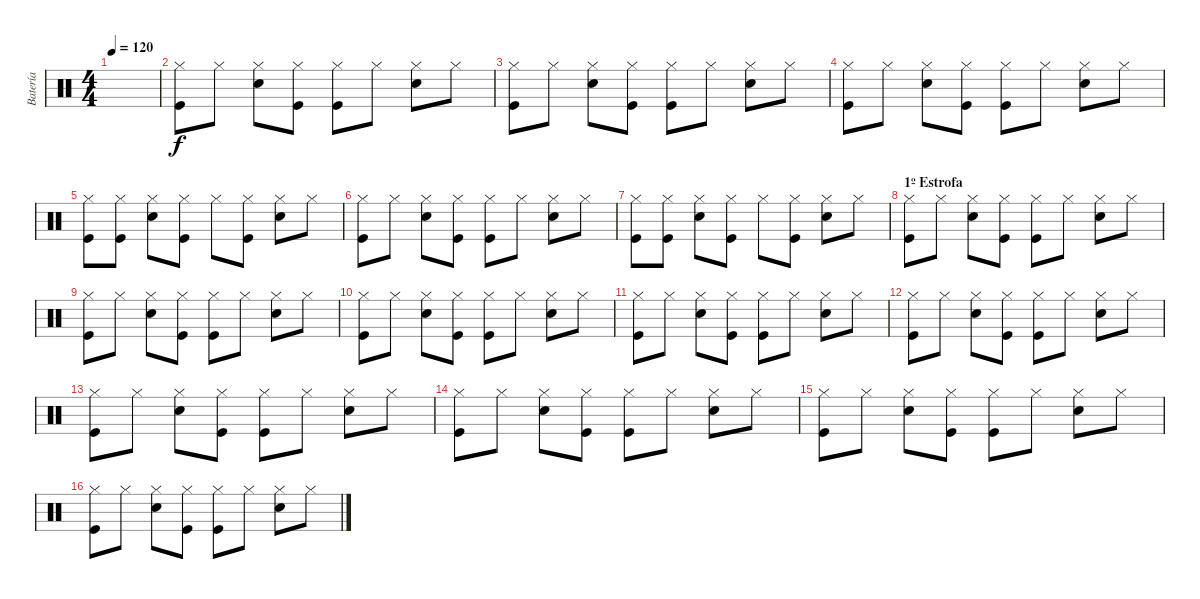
\track ("Batería" "Batería") {instrument percussion}
\staff {score}
\articulation defaults
\ts (4 4)
\tempo 120
\clef neutral
\ks c
|
("Hi-Hat (closed)" "Kick (hit)").8 "Hi-Hat (closed)".8 ("Hi-Hat (closed)" "Electric Snare (hit)").8 ("Hi-Hat (closed)" "Kick (hit)").8 ("Hi-Hat (closed)" "Kick (hit)").8 "Hi-Hat (closed)".8 ("Hi-Hat (closed)" "Electric Snare (hit)").8 "Hi-Hat (closed)".8 |
("Hi-Hat (closed)" "Kick (hit)").8 "Hi-Hat (closed)".8 ("Hi-Hat (closed)" "Electric Snare (hit)").8 ("Hi-Hat (closed)" "Kick (hit)").8 ("Hi-Hat (closed)" "Kick (hit)").8 "Hi-Hat (closed)".8 ("Hi-Hat (closed)" "Electric Snare (hit)").8 "Hi-Hat (closed)".8 |
("Hi-Hat (closed)" "Kick (hit)").8 "Hi-Hat (closed)".8 ("Hi-Hat (closed)" "Electric Snare (hit)").8 ("Hi-Hat (closed)" "Kick (hit)").8 ("Hi-Hat (closed)" "Kick (hit)").8 "Hi-Hat (closed)".8 ("Hi-Hat (closed)" "Electric Snare (hit)").8 "Hi-Hat (closed)".8 |
("Hi-Hat (closed)" "Kick (hit)").8 ("Hi-Hat (closed)" "Kick (hit)").8 ("Hi-Hat (closed)" "Electric Snare (hit)").8 ("Hi-Hat (closed)" "Kick (hit)").8 "Hi-Hat (closed)".8 ("Hi-Hat (closed)" "Kick (hit)").8 ("Hi-Hat (closed)" "Electric Snare (hit)").8 "Hi-Hat (closed)".8 |
("Hi-Hat (closed)" "Kick (hit)").8 "Hi-Hat (closed)".8 ("Hi-Hat (closed)" "Electric Snare (hit)").8 ("Hi-Hat (closed)" "Kick (hit)").8 ("Hi-Hat (closed)" "Kick (hit)").8 "Hi-Hat (closed)".8 ("Hi-Hat (closed)" "Electric Snare (hit)").8 "Hi-Hat (closed)".8 |
("Hi-Hat (closed)" "Kick (hit)").8 ("Hi-Hat (closed)" "Kick (hit)").8 ("Hi-Hat (closed)" "Electric Snare (hit)").8 ("Hi-Hat (closed)" "Kick (hit)").8 "Hi-Hat (closed)".8 ("Hi-Hat (closed)" "Kick (hit)").8 ("Hi-Hat (closed)" "Electric Snare (hit)").8 "Hi-Hat (closed)".8 |
\section ("" "1º Estrofa")
("Hi-Hat (closed)" "Kick (hit)").8 "Hi-Hat (closed)".8 ("Hi-Hat (closed)" "Electric Snare (hit)").8 ("Hi-Hat (closed)" "Kick (hit)").8 ("Hi-Hat (closed)" "Kick (hit)").8 "Hi-Hat (closed)".8 ("Hi-Hat (closed)" "Electric Snare (hit)").8 "Hi-Hat (closed)".8 |
("Hi-Hat (closed)" "Kick (hit)").8 "Hi-Hat (closed)".8 ("Hi-Hat (closed)" "Electric Snare (hit)").8 ("Hi-Hat (closed)" "Kick (hit)").8 ("Hi-Hat (closed)" "Kick (hit)").8 "Hi-Hat (closed)".8 ("Hi-Hat (closed)" "Electric Snare (hit)").8 "Hi-Hat (closed)".8 |
("Hi-Hat (closed)" "Kick (hit)").8 "Hi-Hat (closed)".8 ("Hi-Hat (closed)" "Electric Snare (hit)").8 ("Hi-Hat (closed)" "Kick (hit)").8 ("Hi-Hat (closed)" "Kick (hit)").8 "Hi-Hat (closed)".8 ("Hi-Hat (closed)" "Electric Snare (hit)").8 "Hi-Hat (closed)".8 |
("Hi-Hat (closed)" "Kick (hit)").8 "Hi-Hat (closed)".8 ("Hi-Hat (closed)" "Electric Snare (hit)").8 ("Hi-Hat (closed)" "Kick (hit)").8 ("Hi-Hat (closed)" "Kick (hit)").8 "Hi-Hat (closed)".8 ("Hi-Hat (closed)" "Electric Snare (hit)").8 "Hi-Hat (closed)".8 |
("Hi-Hat (closed)" "Kick (hit)").8 "Hi-Hat (closed)".8 ("Hi-Hat (closed)" "Electric Snare (hit)").8 ("Hi-Hat (closed)" "Kick (hit)").8 ("Hi-Hat (closed)" "Kick (hit)").8 "Hi-Hat (closed)".8 ("Hi-Hat (closed)" "Electric Snare (hit)").8 "Hi-Hat (closed)".8 |
("Hi-Hat (closed)" "Kick (hit)").8 "Hi-Hat (closed)".8 ("Hi-Hat (closed)" "Electric Snare (hit)").8 ("Hi-Hat (closed)" "Kick (hit)").8 ("Hi-Hat (closed)" "Kick (hit)").8 "Hi-Hat (closed)".8 ("Hi-Hat (closed)" "Electric Snare (hit)").8 "Hi-Hat (closed)".8 |
("Hi-Hat (closed)" "Kick (hit)").8 "Hi-Hat (closed)".8 ("Hi-Hat (closed)" "Electric Snare (hit)").8 ("Hi-Hat (closed)" "Kick (hit)").8 ("Hi-Hat (closed)" "Kick (hit)").8 "Hi-Hat (closed)".8 ("Hi-Hat (closed)" "Electric Snare (hit)").8 "Hi-Hat (closed)".8 |
("Hi-Hat (closed)" "Kick (hit)").8 "Hi-Hat (closed)".8 ("Hi-Hat (closed)" "Electric Snare (hit)").8 ("Hi-Hat (closed)" "Kick (hit)").8 ("Hi-Hat (closed)" "Kick (hit)").8 "Hi-Hat (closed)".8 ("Hi-Hat (closed)" "Electric Snare (hit)").8 "Hi-Hat (closed)".8 |
("Hi-Hat (closed)" "Kick (hit)").8 "Hi-Hat (closed)".8 ("Hi-Hat (closed)" "Electric Snare (hit)").8 ("Hi-Hat (closed)" "Kick (hit)").8 ("Hi-Hat (closed)" "Kick (hit)").8 "Hi-Hat (closed)".8 ("Hi-Hat (closed)" "Electric Snare (hit)").8 "Hi-Hat (closed)".8
